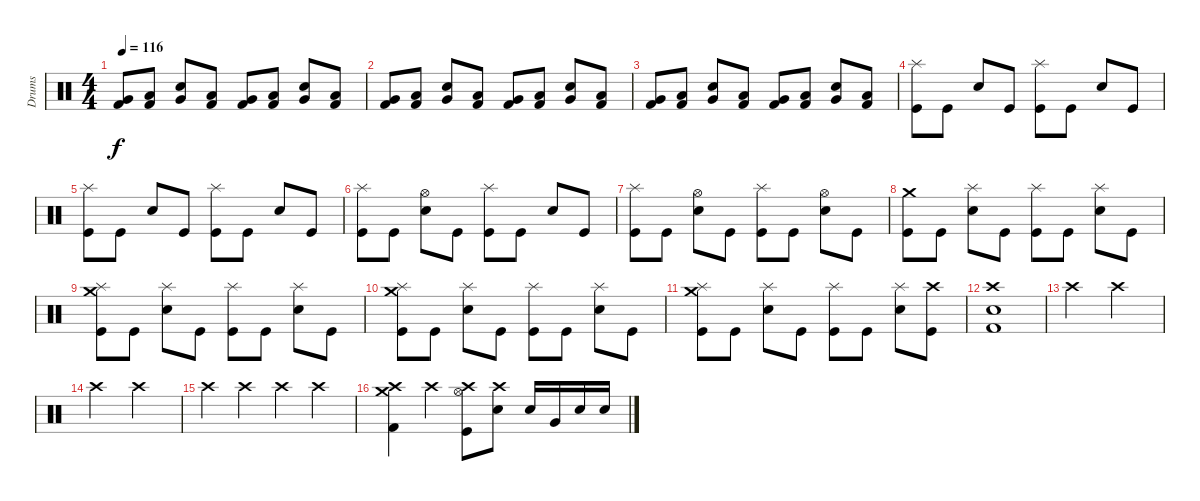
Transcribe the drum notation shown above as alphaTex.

\track ("Drums" "Drums") {instrument percussion}
\staff {score}
\articulation defaults
\ts (4 4)
\tempo 116
\clef neutral
\ks c
("Very Low Tom (hit)" "Kick (hit) 2").8{dy f} ("Low Tom (hit)" "Kick (hit) 2").8 ("Very Low Tom (hit)" "Snare (hit) 2").8 ("Low Floor Tom (hit)" "Kick (hit) 2").8 ("Very Low Tom (hit)" "Kick (hit) 2").8 ("Low Tom (hit)" "Kick (hit) 2").8 ("Very Low Tom (hit)" "Snare (hit) 2").8 ("Low Floor Tom (hit)" "Kick (hit) 2").8 |
("Very Low Tom (hit)" "Kick (hit) 2").8 ("Low Tom (hit)" "Kick (hit) 2").8 ("Very Low Tom (hit)" "Snare (hit) 2").8 ("Low Floor Tom (hit)" "Kick (hit) 2").8 ("Very Low Tom (hit)" "Kick (hit) 2").8 ("Low Tom (hit)" "Kick (hit) 2").8 ("Very Low Tom (hit)" "Snare (hit) 2").8 ("Low Floor Tom (hit)" "Kick (hit) 2").8 |
("Very Low Tom (hit)" "Kick (hit) 2").8 ("Low Tom (hit)" "Kick (hit) 2").8 ("Very Low Tom (hit)" "Snare (hit) 2").8 ("Low Floor Tom (hit)" "Kick (hit) 2").8 ("Very Low Tom (hit)" "Kick (hit) 2").8 ("Low Tom (hit)" "Kick (hit) 2").8 ("Very Low Tom (hit)" "Snare (hit) 2").8 ("Low Floor Tom (hit)" "Kick (hit) 2").8 |
("Splash (hit)" "Kick (hit)").8 "Kick (hit)".8 "Snare (hit) 2".8 "Kick (hit)".8 ("Splash (hit)" "Kick (hit)").8 "Kick (hit)".8 "Snare (hit) 2".8 "Kick (hit)".8 |
("Splash (hit)" "Kick (hit)").8 "Kick (hit)".8 "Snare (hit) 2".8 "Kick (hit)".8 ("Splash (hit)" "Kick (hit)").8 "Kick (hit)".8 "Snare (hit) 2".8 "Kick (hit)".8 |
("Splash (hit)" "Kick (hit)").8 "Kick (hit)".8 ("Hi-Hat (open)" "Snare (hit) 2").8 "Kick (hit)".8 ("Splash (hit)" "Kick (hit)").8 "Kick (hit)".8 "Snare (hit) 2".8 "Kick (hit)".8 |
("Splash (hit)" "Kick (hit)").8 "Kick (hit)".8 ("Hi-Hat (open)" "Snare (hit) 2").8 "Kick (hit)".8 ("Splash (hit)" "Kick (hit)").8 "Kick (hit)".8 ("Hi-Hat (open)" "Snare (hit) 2").8 "Kick (hit)".8 |
("Crash medium (hit)" "Kick (hit)").8 "Kick (hit)".8 ("Splash (hit)" "Snare (hit) 2").8 "Kick (hit)".8 ("Splash (hit)" "Kick (hit)").8 "Kick (hit)".8 ("Splash (hit)" "Snare (hit) 2").8 "Kick (hit)".8 |
("Crash medium (hit)" "Splash (hit)" "Kick (hit)").8 "Kick (hit)".8 ("Splash (hit)" "Snare (hit) 2").8 "Kick (hit)".8 ("Splash (hit)" "Kick (hit)").8 "Kick (hit)".8 ("Splash (hit)" "Snare (hit) 2").8 "Kick (hit)".8 |
("Crash medium (hit)" "Splash (hit)" "Kick (hit)").8 "Kick (hit)".8 ("Splash (hit)" "Snare (hit) 2").8 "Kick (hit)".8 ("Splash (hit)" "Kick (hit)").8 "Kick (hit)".8 ("Splash (hit)" "Snare (hit) 2").8 "Kick (hit)".8 |
("Crash medium (hit)" "Splash (hit)" "Kick (hit)").8 "Kick (hit)".8 ("Splash (hit)" "Snare (hit) 2").8 "Kick (hit)".8 ("Splash (hit)" "Kick (hit)").8 "Kick (hit)".8 ("Splash (hit)" "Snare (hit) 2").8 ("Crash high (hit)" "Kick (hit)").8 |
("Crash high (hit)" "Snare (hit) 2" "Kick (hit) 2").1 |
"Crash high (hit)".2 "Crash high (hit)".2 |
"Crash high (hit)".2 "Crash high (hit)".2 |
"Crash high (hit)".4 "Crash high (hit)".4 "Crash high (hit)".4 "Crash high (hit)".4 |
("Crash high (hit)" "Crash medium (hit)" "Kick (hit) 2").4 "Crash high (hit)".4 ("Hi-Hat (open)" "Crash high (hit)" "Kick (hit)").8 ("Crash high (hit)" "Snare (hit) 2").8 "Snare (hit) 2".16 "Very Low Tom (hit)".16 "Snare (hit) 2".16 "Snare (hit) 2".16
